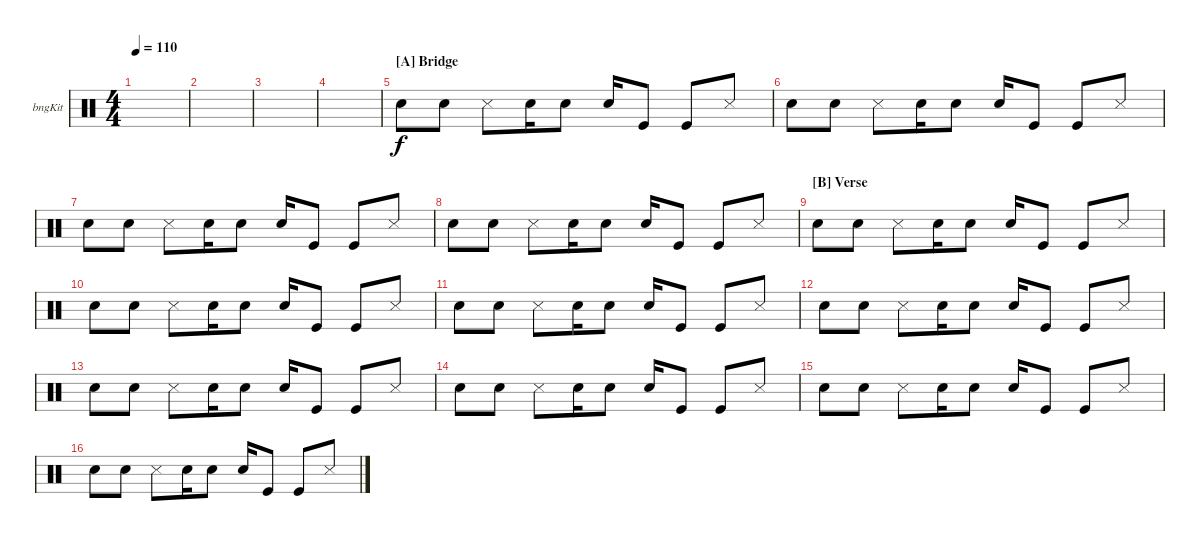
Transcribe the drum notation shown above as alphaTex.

\defaultSystemsLayout 4
\bracketExtendMode groupsimilarinstruments
\firstSystemTrackNameOrientation horizontal
\otherSystemsTrackNameOrientation horizontal
\track ("Bongos" "bngKit") {instrument percussion}
\staff {score}
\articulation defaults
\ts (4 4)
\tempo 110
\clef neutral
\ks c
|
|
|
|
\section ("A" "Bridge ")
"Snare (hit) 2".8 "Snare (hit) 2".8 "Snare (side stick) 3".8 "Snare (hit) 2".16 "Snare (hit) 2".8 "Snare (hit) 2".16 "Kick (hit)".8 "Kick (hit)".8 "Snare (side stick) 3".8 |
"Snare (hit) 2".8 "Snare (hit) 2".8 "Snare (side stick) 3".8 "Snare (hit) 2".16 "Snare (hit) 2".8 "Snare (hit) 2".16 "Kick (hit)".8 "Kick (hit)".8 "Snare (side stick) 3".8 |
"Snare (hit) 2".8 "Snare (hit) 2".8 "Snare (side stick) 3".8 "Snare (hit) 2".16 "Snare (hit) 2".8 "Snare (hit) 2".16 "Kick (hit)".8 "Kick (hit)".8 "Snare (side stick) 3".8 |
"Snare (hit) 2".8 "Snare (hit) 2".8 "Snare (side stick) 3".8 "Snare (hit) 2".16 "Snare (hit) 2".8 "Snare (hit) 2".16 "Kick (hit)".8 "Kick (hit)".8 "Snare (side stick) 3".8 |
\section ("B" "Verse")
"Snare (hit) 2".8 "Snare (hit) 2".8 "Snare (side stick) 3".8 "Snare (hit) 2".16 "Snare (hit) 2".8 "Snare (hit) 2".16 "Kick (hit)".8 "Kick (hit)".8 "Snare (side stick) 3".8 |
"Snare (hit) 2".8 "Snare (hit) 2".8 "Snare (side stick) 3".8 "Snare (hit) 2".16 "Snare (hit) 2".8 "Snare (hit) 2".16 "Kick (hit)".8 "Kick (hit)".8 "Snare (side stick) 3".8 |
"Snare (hit) 2".8 "Snare (hit) 2".8 "Snare (side stick) 3".8 "Snare (hit) 2".16 "Snare (hit) 2".8 "Snare (hit) 2".16 "Kick (hit)".8 "Kick (hit)".8 "Snare (side stick) 3".8 |
"Snare (hit) 2".8 "Snare (hit) 2".8 "Snare (side stick) 3".8 "Snare (hit) 2".16 "Snare (hit) 2".8 "Snare (hit) 2".16 "Kick (hit)".8 "Kick (hit)".8 "Snare (side stick) 3".8 |
"Snare (hit) 2".8 "Snare (hit) 2".8 "Snare (side stick) 3".8 "Snare (hit) 2".16 "Snare (hit) 2".8 "Snare (hit) 2".16 "Kick (hit)".8 "Kick (hit)".8 "Snare (side stick) 3".8 |
"Snare (hit) 2".8 "Snare (hit) 2".8 "Snare (side stick) 3".8 "Snare (hit) 2".16 "Snare (hit) 2".8 "Snare (hit) 2".16 "Kick (hit)".8 "Kick (hit)".8 "Snare (side stick) 3".8 |
"Snare (hit) 2".8 "Snare (hit) 2".8 "Snare (side stick) 3".8 "Snare (hit) 2".16 "Snare (hit) 2".8 "Snare (hit) 2".16 "Kick (hit)".8 "Kick (hit)".8 "Snare (side stick) 3".8 |
"Snare (hit) 2".8 "Snare (hit) 2".8 "Snare (side stick) 3".8 "Snare (hit) 2".16 "Snare (hit) 2".8 "Snare (hit) 2".16 "Kick (hit)".8 "Kick (hit)".8 "Snare (side stick) 3".8
